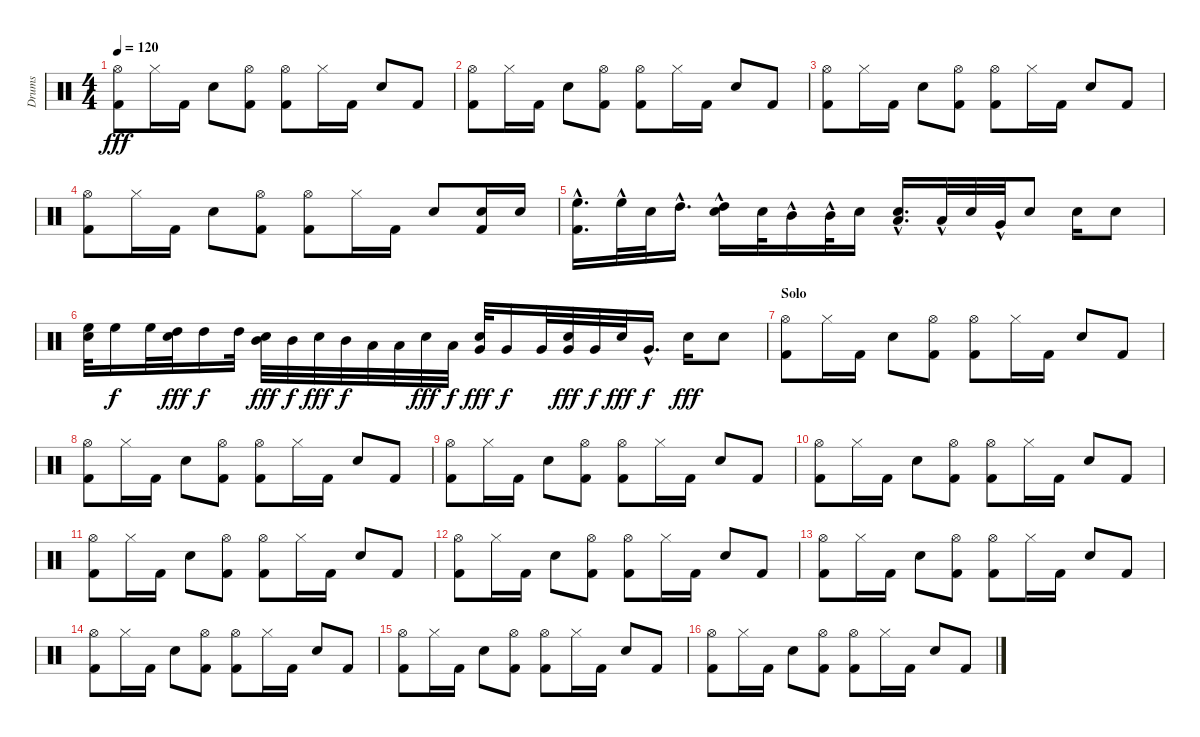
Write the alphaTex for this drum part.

\track ("Drums" "Drums") {instrument percussion}
\staff {score}
\articulation defaults
\ts (4 4)
\tempo 120
\clef neutral
\ks c
("Hi-Hat (open)" "Kick (hit) 2").8{dy fff} "Hi-Hat (closed)".16 "Kick (hit) 2".16 "Electric Snare (hit)".8 ("Hi-Hat (open)" "Kick (hit) 2").8 ("Hi-Hat (open)" "Kick (hit) 2").8 "Hi-Hat (closed)".16 "Kick (hit) 2".16 "Electric Snare (hit)".8 "Kick (hit) 2".8 |
("Hi-Hat (open)" "Kick (hit) 2").8 "Hi-Hat (closed)".16 "Kick (hit) 2".16 "Electric Snare (hit)".8 ("Hi-Hat (open)" "Kick (hit) 2").8 ("Hi-Hat (open)" "Kick (hit) 2").8 "Hi-Hat (closed)".16 "Kick (hit) 2".16 "Electric Snare (hit)".8 "Kick (hit) 2".8 |
("Hi-Hat (open)" "Kick (hit) 2").8 "Hi-Hat (closed)".16 "Kick (hit) 2".16 "Electric Snare (hit)".8 ("Hi-Hat (open)" "Kick (hit) 2").8 ("Hi-Hat (open)" "Kick (hit) 2").8 "Hi-Hat (closed)".16 "Kick (hit) 2".16 "Electric Snare (hit)".8 "Kick (hit) 2".8 |
("Hi-Hat (open)" "Kick (hit) 2").8 "Hi-Hat (closed)".16 "Kick (hit) 2".16 "Electric Snare (hit)".8 ("Hi-Hat (open)" "Kick (hit) 2").8 ("Hi-Hat (open)" "Kick (hit) 2").8 "Hi-Hat (closed)".16 "Kick (hit) 2".16 "Electric Snare (hit)".8 ("Kick (hit) 2" "Electric Snare (hit)").16 "Electric Snare (hit)".16 |
("High Floor Tom (hit)"{hac} "Kick (hit) 2").16{d} "High Floor Tom (hit)"{hac}.32 "Electric Snare (hit)".32 "High Tom (hit)"{hac}.16{d} ("High Tom (hit)"{hac} "Electric Snare (hit)").16 "Electric Snare (hit)".32 "Mid Tom (hit)"{hac}.16 "Mid Tom (hit)"{hac}.32 "Electric Snare (hit)".16 ("Low Tom (hit)"{hac} "Electric Snare (hit)").16{d} "Low Tom (hit)"{hac}.32 "Electric Snare (hit)".32 "Very Low Tom (hit)"{hac}.32 "Electric Snare (hit)".8 "Electric Snare (hit)".16 "Electric Snare (hit)".8 |
("High Floor Tom (hit)" "Electric Snare (hit)").32 "High Floor Tom (hit)".16{dy f} "High Floor Tom (hit)".32 ("High Tom (hit)" "Electric Snare (hit)").32{dy fff} "High Tom (hit)".16{dy f} "High Tom (hit)".32 ("Mid Tom (hit)" "Electric Snare (hit)").32{dy fff} "Mid Tom (hit)".32{dy f} "Electric Snare (hit)".32{dy fff} "Mid Tom (hit)".32{dy f} "Low Tom (hit)".32 "Low Tom (hit)".32 "Electric Snare (hit)".32{dy fff} "Low Tom (hit)".32{dy f} ("Very Low Tom (hit)" "Electric Snare (hit)").32{dy fff} "Very Low Tom (hit)".16{dy f} "Very Low Tom (hit)".32 ("Very Low Tom (hit)" "Electric Snare (hit)").32{dy fff} "Very Low Tom (hit)".32{dy f} "Electric Snare (hit)".32{dy fff} "Very Low Tom (hit)"{hac}.16{d dy f} "Electric Snare (hit)".16{dy fff} "Electric Snare (hit)".8 |
\section ("" "Solo")
("Hi-Hat (open)" "Kick (hit) 2").8 "Hi-Hat (closed)".16 "Kick (hit) 2".16 "Electric Snare (hit)".8 ("Hi-Hat (open)" "Kick (hit) 2").8 ("Hi-Hat (open)" "Kick (hit) 2").8 "Hi-Hat (closed)".16 "Kick (hit) 2".16 "Electric Snare (hit)".8 "Kick (hit) 2".8 |
("Hi-Hat (open)" "Kick (hit) 2").8 "Hi-Hat (closed)".16 "Kick (hit) 2".16 "Electric Snare (hit)".8 ("Hi-Hat (open)" "Kick (hit) 2").8 ("Hi-Hat (open)" "Kick (hit) 2").8 "Hi-Hat (closed)".16 "Kick (hit) 2".16 "Electric Snare (hit)".8 "Kick (hit) 2".8 |
("Hi-Hat (open)" "Kick (hit) 2").8 "Hi-Hat (closed)".16 "Kick (hit) 2".16 "Electric Snare (hit)".8 ("Hi-Hat (open)" "Kick (hit) 2").8 ("Hi-Hat (open)" "Kick (hit) 2").8 "Hi-Hat (closed)".16 "Kick (hit) 2".16 "Electric Snare (hit)".8 "Kick (hit) 2".8 |
("Hi-Hat (open)" "Kick (hit) 2").8 "Hi-Hat (closed)".16 "Kick (hit) 2".16 "Electric Snare (hit)".8 ("Hi-Hat (open)" "Kick (hit) 2").8 ("Hi-Hat (open)" "Kick (hit) 2").8 "Hi-Hat (closed)".16 "Kick (hit) 2".16 "Electric Snare (hit)".8 "Kick (hit) 2".8 |
("Hi-Hat (open)" "Kick (hit) 2").8 "Hi-Hat (closed)".16 "Kick (hit) 2".16 "Electric Snare (hit)".8 ("Hi-Hat (open)" "Kick (hit) 2").8 ("Hi-Hat (open)" "Kick (hit) 2").8 "Hi-Hat (closed)".16 "Kick (hit) 2".16 "Electric Snare (hit)".8 "Kick (hit) 2".8 |
("Hi-Hat (open)" "Kick (hit) 2").8 "Hi-Hat (closed)".16 "Kick (hit) 2".16 "Electric Snare (hit)".8 ("Hi-Hat (open)" "Kick (hit) 2").8 ("Hi-Hat (open)" "Kick (hit) 2").8 "Hi-Hat (closed)".16 "Kick (hit) 2".16 "Electric Snare (hit)".8 "Kick (hit) 2".8 |
("Hi-Hat (open)" "Kick (hit) 2").8 "Hi-Hat (closed)".16 "Kick (hit) 2".16 "Electric Snare (hit)".8 ("Hi-Hat (open)" "Kick (hit) 2").8 ("Hi-Hat (open)" "Kick (hit) 2").8 "Hi-Hat (closed)".16 "Kick (hit) 2".16 "Electric Snare (hit)".8 "Kick (hit) 2".8 |
("Hi-Hat (open)" "Kick (hit) 2").8 "Hi-Hat (closed)".16 "Kick (hit) 2".16 "Electric Snare (hit)".8 ("Hi-Hat (open)" "Kick (hit) 2").8 ("Hi-Hat (open)" "Kick (hit) 2").8 "Hi-Hat (closed)".16 "Kick (hit) 2".16 "Electric Snare (hit)".8 "Kick (hit) 2".8 |
("Hi-Hat (open)" "Kick (hit) 2").8 "Hi-Hat (closed)".16 "Kick (hit) 2".16 "Electric Snare (hit)".8 ("Hi-Hat (open)" "Kick (hit) 2").8 ("Hi-Hat (open)" "Kick (hit) 2").8 "Hi-Hat (closed)".16 "Kick (hit) 2".16 "Electric Snare (hit)".8 "Kick (hit) 2".8 |
("Hi-Hat (open)" "Kick (hit) 2").8 "Hi-Hat (closed)".16 "Kick (hit) 2".16 "Electric Snare (hit)".8 ("Hi-Hat (open)" "Kick (hit) 2").8 ("Hi-Hat (open)" "Kick (hit) 2").8 "Hi-Hat (closed)".16 "Kick (hit) 2".16 "Electric Snare (hit)".8 "Kick (hit) 2".8
